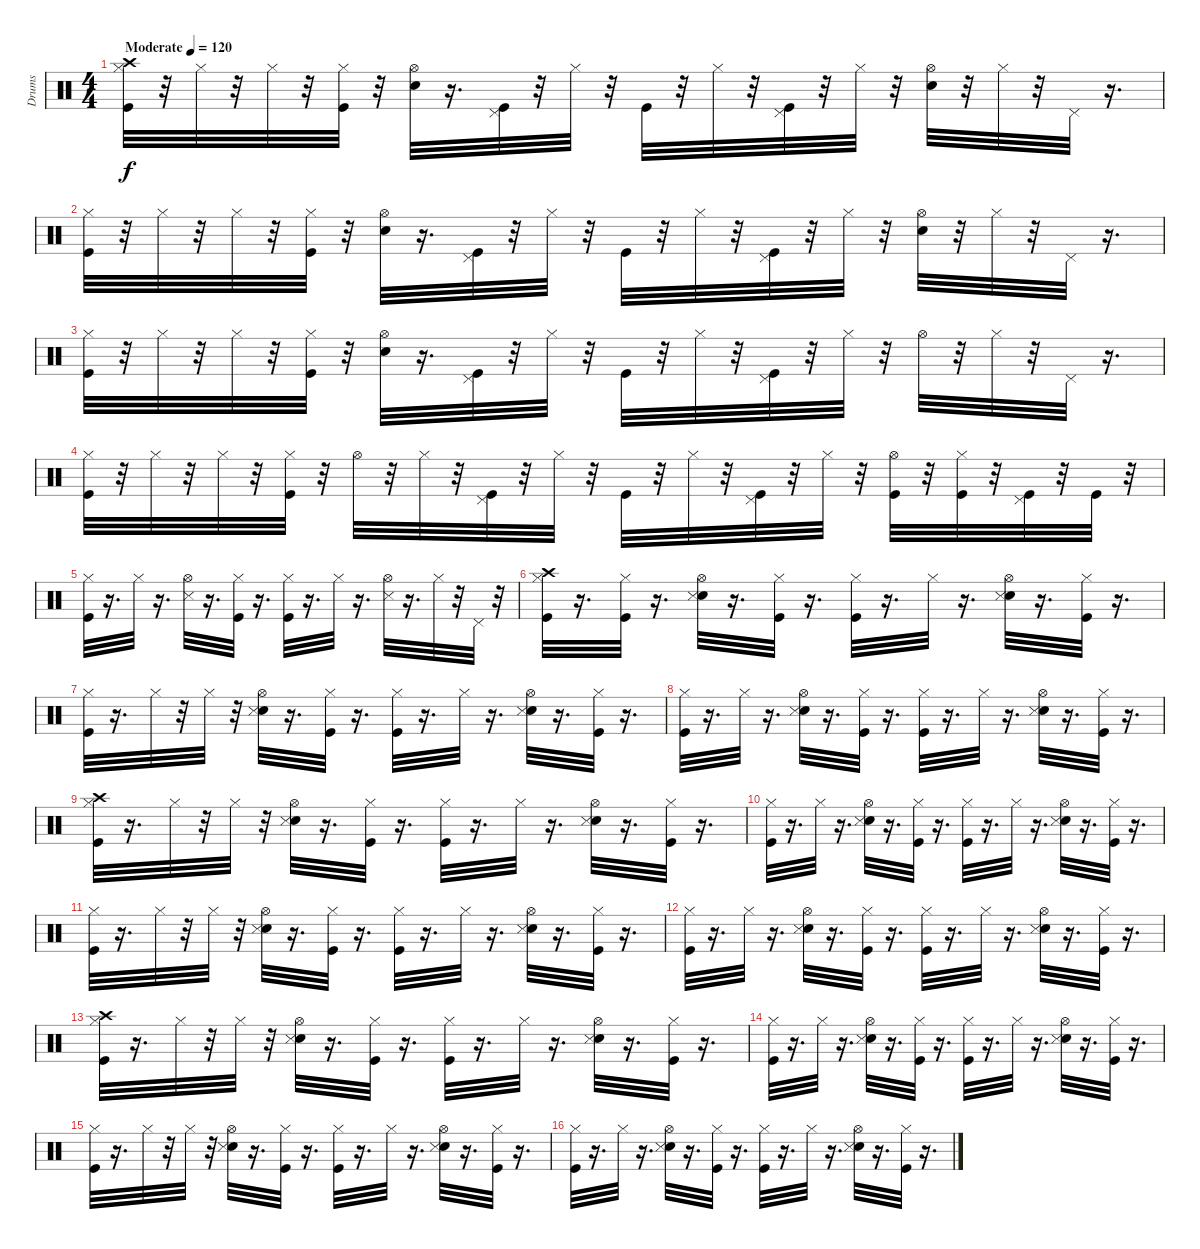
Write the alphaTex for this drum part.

\track ("Drums" "Drums") {instrument percussion}
\staff {score}
\articulation defaults
\ts (4 4)
\tempo (120 "Moderate")
\clef neutral
\ks c
("Crash high (hit)" "Hi-Hat (closed)" "Kick (hit)").32{dy f} r.32 "Hi-Hat (closed)".32 r.32 "Hi-Hat (closed)".32 r.32 ("Kick (hit)" "Hi-Hat (closed)").32 r.32 ("Hi-Hat (open)" "Snare (hit) 2").32 r.16{d} ("Pedal Hi-Hat (hit)" "Kick (hit)").32 r.32 "Hi-Hat (closed)".32 r.32 "Kick (hit)".32 r.32 "Hi-Hat (closed)".32 r.32 ("Kick (hit)" "Pedal Hi-Hat (hit)").32 r.32 "Hi-Hat (closed)".32 r.32 ("Hi-Hat (open)" "Snare (hit) 2").32 r.32 "Hi-Hat (closed)".32 r.32 "Pedal Hi-Hat (hit)".32 r.16{d} |
("Hi-Hat (closed)" "Kick (hit)").32 r.32 "Hi-Hat (closed)".32 r.32 "Hi-Hat (closed)".32 r.32 ("Kick (hit)" "Hi-Hat (closed)").32 r.32 ("Hi-Hat (open)" "Snare (hit) 2").32 r.16{d} ("Pedal Hi-Hat (hit)" "Kick (hit)").32 r.32 "Hi-Hat (closed)".32 r.32 "Kick (hit)".32 r.32 "Hi-Hat (closed)".32 r.32 ("Kick (hit)" "Pedal Hi-Hat (hit)").32 r.32 "Hi-Hat (closed)".32 r.32 ("Hi-Hat (open)" "Snare (hit) 2").32 r.32 "Hi-Hat (closed)".32 r.32 "Pedal Hi-Hat (hit)".32 r.16{d} |
("Hi-Hat (closed)" "Kick (hit)").32 r.32 "Hi-Hat (closed)".32 r.32 "Hi-Hat (closed)".32 r.32 ("Kick (hit)" "Hi-Hat (closed)").32 r.32 ("Hi-Hat (open)" "Snare (hit) 2").32 r.16{d} ("Pedal Hi-Hat (hit)" "Kick (hit)").32 r.32 "Hi-Hat (closed)".32 r.32 "Kick (hit)".32 r.32 "Hi-Hat (closed)".32 r.32 ("Kick (hit)" "Pedal Hi-Hat (hit)").32 r.32 "Hi-Hat (closed)".32 r.32 "Hi-Hat (open)".32 r.32 "Hi-Hat (closed)".32 r.32 "Pedal Hi-Hat (hit)".32 r.16{d} |
("Hi-Hat (closed)" "Kick (hit)").32 r.32 "Hi-Hat (closed)".32 r.32 "Hi-Hat (closed)".32 r.32 ("Kick (hit)" "Hi-Hat (closed)").32 r.32 "Hi-Hat (open)".32 r.32 "Hi-Hat (closed)".32 r.32 ("Pedal Hi-Hat (hit)" "Kick (hit)").32 r.32 "Hi-Hat (closed)".32 r.32 "Kick (hit)".32 r.32 "Hi-Hat (closed)".32 r.32 ("Kick (hit)" "Pedal Hi-Hat (hit)").32 r.32 "Hi-Hat (closed)".32 r.32 ("Kick (hit)" "Hi-Hat (open)").32 r.32 ("Kick (hit)" "Hi-Hat (closed)").32 r.32 ("Kick (hit)" "Pedal Hi-Hat (hit)").32 r.32 "Kick (hit)".32 r.32 |
("Hi-Hat (closed)" "Kick (hit)").32 r.16{d} "Hi-Hat (closed)".32 r.16{d} ("Hi-Hat (open)" "Snare (side stick) 3").32 r.16{d} ("Hi-Hat (closed)" "Kick (hit)").32 r.16{d} ("Hi-Hat (closed)" "Kick (hit)").32 r.16{d} "Hi-Hat (closed)".32 r.16{d} ("Hi-Hat (open)" "Snare (side stick) 3").32 r.16{d} "Hi-Hat (closed)".32 r.32 "Pedal Hi-Hat (hit)".32 r.32 |
("Crash high (hit)" "Hi-Hat (closed)" "Kick (hit)").32 r.16{d} ("Kick (hit)" "Hi-Hat (closed)").32 r.16{d} ("Snare (hit) 2" "Hi-Hat (open)" "Snare (side stick) 3").32 r.16{d} ("Hi-Hat (closed)" "Kick (hit)").32 r.16{d} ("Hi-Hat (closed)" "Kick (hit)").32 r.16{d} "Hi-Hat (closed)".32 r.16{d} ("Snare (hit) 2" "Hi-Hat (open)" "Snare (side stick) 3").32 r.16{d} ("Kick (hit)" "Hi-Hat (closed)").32 r.16{d} |
("Hi-Hat (closed)" "Kick (hit)").32 r.16{d} "Hi-Hat (closed)".32 r.32 "Hi-Hat (closed)".32 r.32 ("Snare (hit) 2" "Hi-Hat (open)" "Snare (side stick) 3").32 r.16{d} ("Hi-Hat (closed)" "Kick (hit)").32 r.16{d} ("Hi-Hat (closed)" "Kick (hit)").32 r.16{d} "Hi-Hat (closed)".32 r.16{d} ("Snare (hit) 2" "Hi-Hat (open)" "Snare (side stick) 3").32 r.16{d} ("Kick (hit)" "Hi-Hat (closed)").32 r.16{d} |
("Hi-Hat (closed)" "Kick (hit)").32 r.16{d} "Hi-Hat (closed)".32 r.16{d} ("Snare (hit) 2" "Hi-Hat (open)" "Snare (side stick) 3").32 r.16{d} ("Hi-Hat (closed)" "Kick (hit)").32 r.16{d} ("Hi-Hat (closed)" "Kick (hit)").32 r.16{d} "Hi-Hat (closed)".32 r.16{d} ("Snare (hit) 2" "Hi-Hat (open)" "Snare (side stick) 3").32 r.16{d} ("Kick (hit)" "Hi-Hat (closed)").32 r.16{d} |
("Crash high (hit)" "Hi-Hat (closed)" "Kick (hit)").32 r.16{d} "Hi-Hat (closed)".32 r.32 "Hi-Hat (closed)".32 r.32 ("Snare (hit) 2" "Hi-Hat (open)" "Snare (side stick) 3").32 r.16{d} ("Hi-Hat (closed)" "Kick (hit)").32 r.16{d} ("Hi-Hat (closed)" "Kick (hit)").32 r.16{d} "Hi-Hat (closed)".32 r.16{d} ("Snare (hit) 2" "Hi-Hat (open)" "Snare (side stick) 3").32 r.16{d} ("Kick (hit)" "Hi-Hat (closed)").32 r.16{d} |
("Hi-Hat (closed)" "Kick (hit)").32 r.16{d} "Hi-Hat (closed)".32 r.16{d} ("Snare (hit) 2" "Hi-Hat (open)" "Snare (side stick) 3").32 r.16{d} ("Hi-Hat (closed)" "Kick (hit)").32 r.16{d} ("Hi-Hat (closed)" "Kick (hit)").32 r.16{d} "Hi-Hat (closed)".32 r.16{d} ("Snare (hit) 2" "Hi-Hat (open)" "Snare (side stick) 3").32 r.16{d} ("Kick (hit)" "Hi-Hat (closed)").32 r.16{d} |
("Hi-Hat (closed)" "Kick (hit)").32 r.16{d} "Hi-Hat (closed)".32 r.32 "Hi-Hat (closed)".32 r.32 ("Snare (hit) 2" "Hi-Hat (open)" "Snare (side stick) 3").32 r.16{d} ("Hi-Hat (closed)" "Kick (hit)").32 r.16{d} ("Hi-Hat (closed)" "Kick (hit)").32 r.16{d} "Hi-Hat (closed)".32 r.16{d} ("Snare (hit) 2" "Hi-Hat (open)" "Snare (side stick) 3").32 r.16{d} ("Kick (hit)" "Hi-Hat (closed)").32 r.16{d} |
("Hi-Hat (closed)" "Kick (hit)").32 r.16{d} "Hi-Hat (closed)".32 r.16{d} ("Snare (hit) 2" "Hi-Hat (open)" "Snare (side stick) 3").32 r.16{d} ("Hi-Hat (closed)" "Kick (hit)").32 r.16{d} ("Hi-Hat (closed)" "Kick (hit)").32 r.16{d} "Hi-Hat (closed)".32 r.16{d} ("Snare (hit) 2" "Hi-Hat (open)" "Snare (side stick) 3").32 r.16{d} ("Kick (hit)" "Hi-Hat (closed)").32 r.16{d} |
("Crash high (hit)" "Hi-Hat (closed)" "Kick (hit)").32 r.16{d} "Hi-Hat (closed)".32 r.32 "Hi-Hat (closed)".32 r.32 ("Snare (hit) 2" "Hi-Hat (open)" "Snare (side stick) 3").32 r.16{d} ("Hi-Hat (closed)" "Kick (hit)").32 r.16{d} ("Hi-Hat (closed)" "Kick (hit)").32 r.16{d} "Hi-Hat (closed)".32 r.16{d} ("Snare (hit) 2" "Hi-Hat (open)" "Snare (side stick) 3").32 r.16{d} ("Kick (hit)" "Hi-Hat (closed)").32 r.16{d} |
("Hi-Hat (closed)" "Kick (hit)").32 r.16{d} "Hi-Hat (closed)".32 r.16{d} ("Snare (hit) 2" "Hi-Hat (open)" "Snare (side stick) 3").32 r.16{d} ("Hi-Hat (closed)" "Kick (hit)").32 r.16{d} ("Hi-Hat (closed)" "Kick (hit)").32 r.16{d} "Hi-Hat (closed)".32 r.16{d} ("Snare (hit) 2" "Hi-Hat (open)" "Snare (side stick) 3").32 r.16{d} ("Kick (hit)" "Hi-Hat (closed)").32 r.16{d} |
("Hi-Hat (closed)" "Kick (hit)").32 r.16{d} "Hi-Hat (closed)".32 r.32 "Hi-Hat (closed)".32 r.32 ("Snare (hit) 2" "Hi-Hat (open)" "Snare (side stick) 3").32 r.16{d} ("Hi-Hat (closed)" "Kick (hit)").32 r.16{d} ("Hi-Hat (closed)" "Kick (hit)").32 r.16{d} "Hi-Hat (closed)".32 r.16{d} ("Snare (hit) 2" "Hi-Hat (open)" "Snare (side stick) 3").32 r.16{d} ("Kick (hit)" "Hi-Hat (closed)").32 r.16{d} |
("Hi-Hat (closed)" "Kick (hit)").32 r.16{d} "Hi-Hat (closed)".32 r.16{d} ("Snare (hit) 2" "Hi-Hat (open)" "Snare (side stick) 3").32 r.16{d} ("Hi-Hat (closed)" "Kick (hit)").32 r.16{d} ("Hi-Hat (closed)" "Kick (hit)").32 r.16{d} "Hi-Hat (closed)".32 r.16{d} ("Snare (hit) 2" "Hi-Hat (open)" "Snare (side stick) 3").32 r.16{d} ("Kick (hit)" "Hi-Hat (closed)").32 r.16{d}
